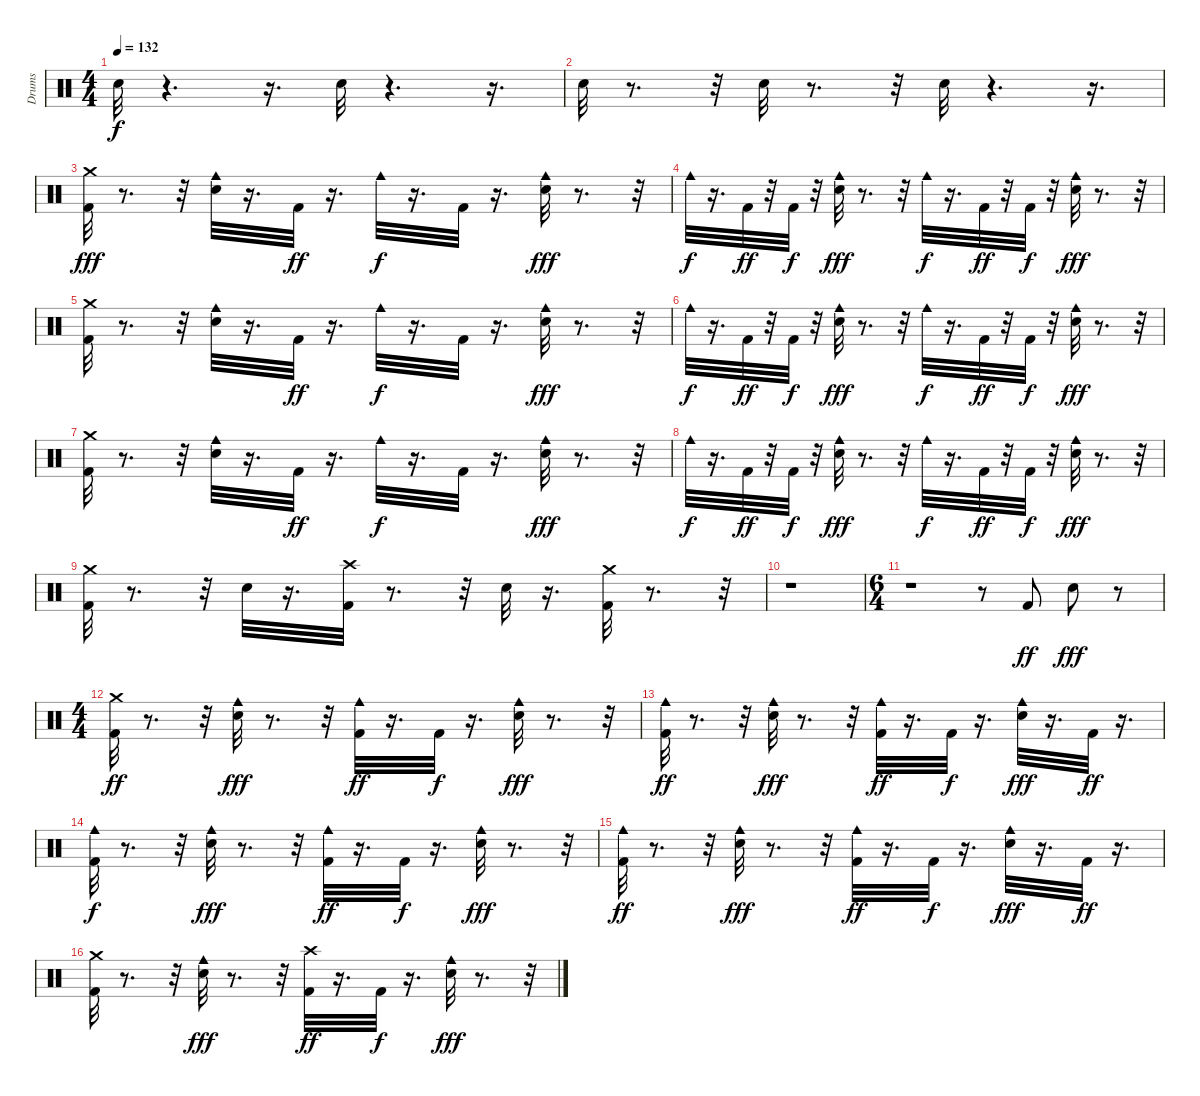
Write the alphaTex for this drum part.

\track ("Drums" "Drums") {instrument percussion}
\staff {score}
\articulation defaults
\ts (4 4)
\tempo 132
\clef neutral
\ks c "Hand Clap (hit)".32{dy f}
r.4{d} r.16{d} "Hand Clap (hit)".32 r.4{d} r.16{d} |
"Hand Clap (hit)".32 r.8{d} r.32 "Hand Clap (hit)".32 r.8{d} r.32 "Hand Clap (hit)".32 r.4{d} r.16{d} |
("Kick (hit) 2" "Crash medium (hit)").32{dy fff} r.8{d} r.32 ("Cowbell medium (hit)" "Snare (hit) 2").32 r.16{d} "Kick (hit) 2".32{dy ff} r.16{d} "Cowbell medium (hit)".32{dy f} r.16{d} "Kick (hit) 2".32 r.16{d} ("Cowbell medium (hit)" "Snare (hit) 2").32{dy fff} r.8{d} r.32 |
"Cowbell medium (hit)".32{dy f} r.16{d} "Kick (hit) 2".32{dy ff} r.32 "Kick (hit) 2".32{dy f} r.32 ("Cowbell medium (hit)" "Snare (hit) 2").32{dy fff} r.8{d} r.32 "Cowbell medium (hit)".32{dy f} r.16{d} "Kick (hit) 2".32{dy ff} r.32 "Kick (hit) 2".32{dy f} r.32 ("Cowbell medium (hit)" "Snare (hit) 2").32{dy fff} r.8{d} r.32 |
("Kick (hit) 2" "Crash medium (hit)").32 r.8{d} r.32 ("Cowbell medium (hit)" "Snare (hit) 2").32 r.16{d} "Kick (hit) 2".32{dy ff} r.16{d} "Cowbell medium (hit)".32{dy f} r.16{d} "Kick (hit) 2".32 r.16{d} ("Cowbell medium (hit)" "Snare (hit) 2").32{dy fff} r.8{d} r.32 |
"Cowbell medium (hit)".32{dy f} r.16{d} "Kick (hit) 2".32{dy ff} r.32 "Kick (hit) 2".32{dy f} r.32 ("Cowbell medium (hit)" "Snare (hit) 2").32{dy fff} r.8{d} r.32 "Cowbell medium (hit)".32{dy f} r.16{d} "Kick (hit) 2".32{dy ff} r.32 "Kick (hit) 2".32{dy f} r.32 ("Cowbell medium (hit)" "Snare (hit) 2").32{dy fff} r.8{d} r.32 |
("Kick (hit) 2" "Crash medium (hit)").32 r.8{d} r.32 ("Cowbell medium (hit)" "Snare (hit) 2").32 r.16{d} "Kick (hit) 2".32{dy ff} r.16{d} "Cowbell medium (hit)".32{dy f} r.16{d} "Kick (hit) 2".32 r.16{d} ("Cowbell medium (hit)" "Snare (hit) 2").32{dy fff} r.8{d} r.32 |
"Cowbell medium (hit)".32{dy f} r.16{d} "Kick (hit) 2".32{dy ff} r.32 "Kick (hit) 2".32{dy f} r.32 ("Cowbell medium (hit)" "Snare (hit) 2").32{dy fff} r.8{d} r.32 "Cowbell medium (hit)".32{dy f} r.16{d} "Kick (hit) 2".32{dy ff} r.32 "Kick (hit) 2".32{dy f} r.32 ("Cowbell medium (hit)" "Snare (hit) 2").32{dy fff} r.8{d} r.32 |
("Kick (hit) 2" "Crash medium (hit)").32 r.8{d} r.32 "Snare (hit) 2".32 r.16{d} ("Kick (hit) 2" "Crash high (hit)").32 r.8{d} r.32 "Snare (hit) 2".32 r.16{d} ("Kick (hit) 2" "Crash medium (hit)").32 r.8{d} r.32 |
r.1 |
\ts (6 4)
r.1 r.8 "Kick (hit) 2".8{dy ff} "Snare (hit) 2".8{dy fff} r.8 |
\ts (4 4)
("Crash medium (hit)" "Kick (hit) 2").32{dy ff} r.8{d} r.32 ("Snare (hit) 2" "Cowbell medium (hit)").32{dy fff} r.8{d} r.32 ("Kick (hit) 2" "Cowbell medium (hit)").32{dy ff} r.16{d} "Kick (hit) 2".32{dy f} r.16{d} ("Snare (hit) 2" "Cowbell medium (hit)").32{dy fff} r.8{d} r.32 |
("Cowbell medium (hit)" "Kick (hit) 2").32{dy ff} r.8{d} r.32 ("Cowbell medium (hit)" "Snare (hit) 2").32{dy fff} r.8{d} r.32 ("Cowbell medium (hit)" "Kick (hit) 2").32{dy ff} r.16{d} "Kick (hit) 2".32{dy f} r.16{d} ("Cowbell medium (hit)" "Snare (hit) 2").32{dy fff} r.16{d} "Kick (hit) 2".32{dy ff} r.16{d} |
("Kick (hit) 2" "Cowbell medium (hit)").32{dy f} r.8{d} r.32 ("Snare (hit) 2" "Cowbell medium (hit)").32{dy fff} r.8{d} r.32 ("Kick (hit) 2" "Cowbell medium (hit)").32{dy ff} r.16{d} "Kick (hit) 2".32{dy f} r.16{d} ("Snare (hit) 2" "Cowbell medium (hit)").32{dy fff} r.8{d} r.32 |
("Cowbell medium (hit)" "Kick (hit) 2").32{dy ff} r.8{d} r.32 ("Cowbell medium (hit)" "Snare (hit) 2").32{dy fff} r.8{d} r.32 ("Cowbell medium (hit)" "Kick (hit) 2").32{dy ff} r.16{d} "Kick (hit) 2".32{dy f} r.16{d} ("Cowbell medium (hit)" "Snare (hit) 2").32{dy fff} r.16{d} "Kick (hit) 2".32{dy ff} r.16{d} |
("Crash medium (hit)" "Kick (hit) 2").32 r.8{d} r.32 ("Snare (hit) 2" "Cowbell medium (hit)").32{dy fff} r.8{d} r.32 ("Crash high (hit)" "Kick (hit) 2").32{dy ff} r.16{d} "Kick (hit) 2".32{dy f} r.16{d} ("Snare (hit) 2" "Cowbell medium (hit)").32{dy fff} r.8{d} r.32
